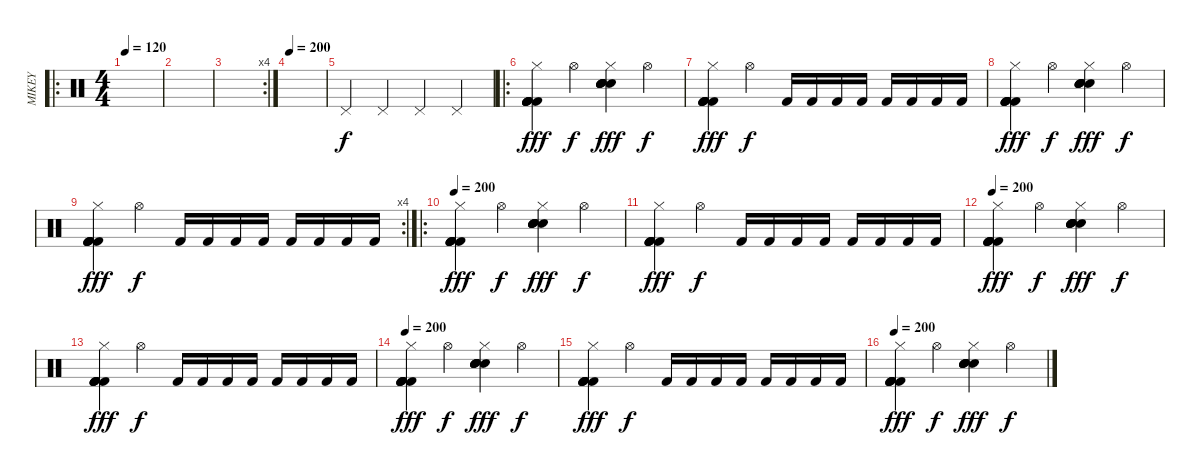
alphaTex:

\track ("MIKEY" "MIKEY") {instrument percussion}
\staff {score}
\articulation defaults
\ro
\ts (4 4)
\tempo 120
\clef neutral
\ks c
|
|
\rc 4
|
\tempo 200
|
"Pedal Hi-Hat (hit)".4 "Pedal Hi-Hat (hit)".4 "Pedal Hi-Hat (hit)".4 "Pedal Hi-Hat (hit)".4 |
\ro
("Kick (hit) 2" "Kick (hit) 2" "Kick (hit) 2" "Kick (hit) 2" "Kick (hit) 2" "Hi-Hat (closed)").4{dy fff} "Hi-Hat (open)".4{dy f} ("Snare (hit) 2" "Snare (hit) 2" "Snare (hit) 2" "Snare (hit) 2" "Snare (hit) 2" "Hi-Hat (closed)").4{dy fff} "Hi-Hat (open)".4{dy f} |
("Kick (hit) 2" "Kick (hit) 2" "Kick (hit) 2" "Kick (hit) 2" "Kick (hit) 2" "Hi-Hat (closed)").4{dy fff} "Hi-Hat (open)".4{dy f} "Kick (hit) 2".16 "Kick (hit) 2".16 "Kick (hit) 2".16 "Kick (hit) 2".16 "Kick (hit) 2".16 "Kick (hit) 2".16 "Kick (hit) 2".16 "Kick (hit) 2".16 |
("Kick (hit) 2" "Kick (hit) 2" "Kick (hit) 2" "Kick (hit) 2" "Kick (hit) 2" "Hi-Hat (closed)").4{dy fff} "Hi-Hat (open)".4{dy f} ("Snare (hit) 2" "Snare (hit) 2" "Snare (hit) 2" "Snare (hit) 2" "Snare (hit) 2" "Hi-Hat (closed)").4{dy fff} "Hi-Hat (open)".4{dy f} |
\rc 4
("Kick (hit) 2" "Kick (hit) 2" "Kick (hit) 2" "Kick (hit) 2" "Kick (hit) 2" "Hi-Hat (closed)").4{dy fff} "Hi-Hat (open)".4{dy f} "Kick (hit) 2".16 "Kick (hit) 2".16 "Kick (hit) 2".16 "Kick (hit) 2".16 "Kick (hit) 2".16 "Kick (hit) 2".16 "Kick (hit) 2".16 "Kick (hit) 2".16 |
\ro
\tempo 200
("Kick (hit) 2" "Kick (hit) 2" "Kick (hit) 2" "Kick (hit) 2" "Kick (hit) 2" "Hi-Hat (closed)").4{dy fff} "Hi-Hat (open)".4{dy f} ("Snare (hit) 2" "Snare (hit) 2" "Snare (hit) 2" "Snare (hit) 2" "Snare (hit) 2" "Hi-Hat (closed)").4{dy fff} "Hi-Hat (open)".4{dy f} |
("Kick (hit) 2" "Kick (hit) 2" "Kick (hit) 2" "Kick (hit) 2" "Kick (hit) 2" "Hi-Hat (closed)").4{dy fff} "Hi-Hat (open)".4{dy f} "Kick (hit) 2".16 "Kick (hit) 2".16 "Kick (hit) 2".16 "Kick (hit) 2".16 "Kick (hit) 2".16 "Kick (hit) 2".16 "Kick (hit) 2".16 "Kick (hit) 2".16 |
\tempo 200
("Kick (hit) 2" "Kick (hit) 2" "Kick (hit) 2" "Kick (hit) 2" "Kick (hit) 2" "Hi-Hat (closed)").4{dy fff} "Hi-Hat (open)".4{dy f} ("Snare (hit) 2" "Snare (hit) 2" "Snare (hit) 2" "Snare (hit) 2" "Snare (hit) 2" "Hi-Hat (closed)").4{dy fff} "Hi-Hat (open)".4{dy f} |
("Kick (hit) 2" "Kick (hit) 2" "Kick (hit) 2" "Kick (hit) 2" "Kick (hit) 2" "Hi-Hat (closed)").4{dy fff} "Hi-Hat (open)".4{dy f} "Kick (hit) 2".16 "Kick (hit) 2".16 "Kick (hit) 2".16 "Kick (hit) 2".16 "Kick (hit) 2".16 "Kick (hit) 2".16 "Kick (hit) 2".16 "Kick (hit) 2".16 |
\tempo 200
("Kick (hit) 2" "Kick (hit) 2" "Kick (hit) 2" "Kick (hit) 2" "Kick (hit) 2" "Hi-Hat (closed)").4{dy fff} "Hi-Hat (open)".4{dy f} ("Snare (hit) 2" "Snare (hit) 2" "Snare (hit) 2" "Snare (hit) 2" "Snare (hit) 2" "Hi-Hat (closed)").4{dy fff} "Hi-Hat (open)".4{dy f} |
("Kick (hit) 2" "Kick (hit) 2" "Kick (hit) 2" "Kick (hit) 2" "Kick (hit) 2" "Hi-Hat (closed)").4{dy fff} "Hi-Hat (open)".4{dy f} "Kick (hit) 2".16 "Kick (hit) 2".16 "Kick (hit) 2".16 "Kick (hit) 2".16 "Kick (hit) 2".16 "Kick (hit) 2".16 "Kick (hit) 2".16 "Kick (hit) 2".16 |
\tempo 200
("Kick (hit) 2" "Kick (hit) 2" "Kick (hit) 2" "Kick (hit) 2" "Kick (hit) 2" "Hi-Hat (closed)").4{dy fff} "Hi-Hat (open)".4{dy f} ("Snare (hit) 2" "Snare (hit) 2" "Snare (hit) 2" "Snare (hit) 2" "Snare (hit) 2" "Hi-Hat (closed)").4{dy fff} "Hi-Hat (open)".4{dy f}
